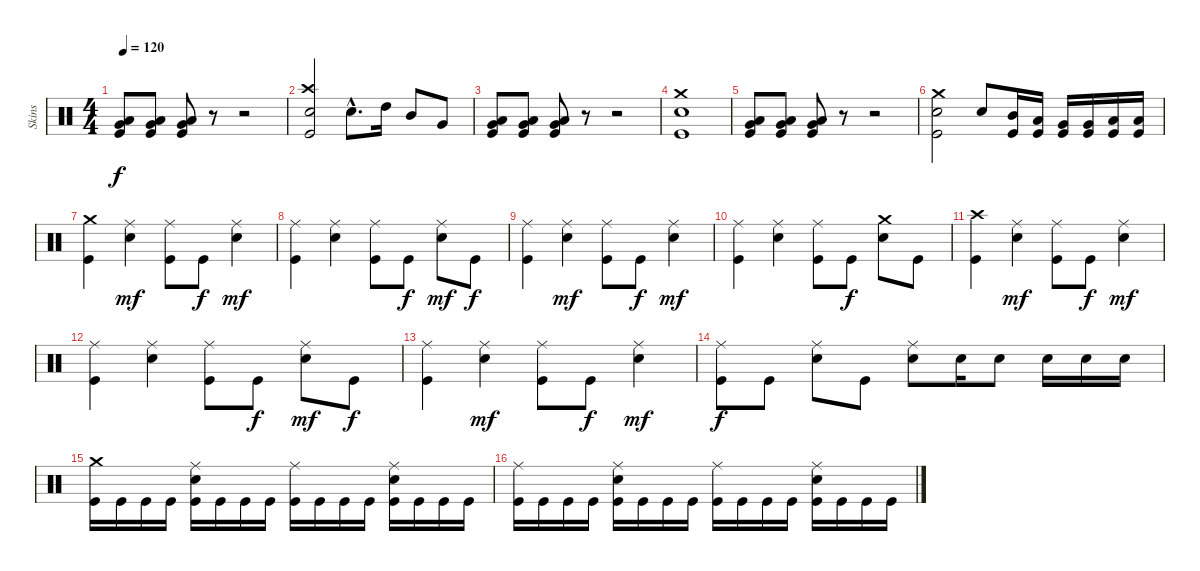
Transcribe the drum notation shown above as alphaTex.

\track ("Skins" "Skins") {instrument percussion}
\staff {score}
\articulation defaults
\ts (4 4)
\tempo 120
\clef neutral
\ks c
("Very Low Tom (hit)" "Low Floor Tom (hit)" "Kick (hit)").8{dy f} ("Very Low Tom (hit)" "Low Floor Tom (hit)" "Kick (hit)").8 ("Very Low Tom (hit)" "Low Floor Tom (hit)" "Kick (hit)").8 r.8 r.2 |
("Crash high (hit)" "Electric Snare (hit)" "Kick (hit)").2 "Snare (hit) 2"{hac}.8{d} "High Tom (hit)".16 "Mid Tom (hit)".8 "Very Low Tom (hit)".8 |
("Very Low Tom (hit)" "Low Floor Tom (hit)" "Kick (hit)").8 ("Very Low Tom (hit)" "Low Floor Tom (hit)" "Kick (hit)").8 ("Very Low Tom (hit)" "Low Floor Tom (hit)" "Kick (hit)").8 r.8 r.2 |
("Crash medium (hit)" "Electric Snare (hit)" "Kick (hit)").1 |
("Very Low Tom (hit)" "Low Floor Tom (hit)" "Kick (hit)").8 ("Very Low Tom (hit)" "Low Floor Tom (hit)" "Kick (hit)").8 ("Very Low Tom (hit)" "Low Floor Tom (hit)" "Kick (hit)").8 r.8 r.2 |
("Crash medium (hit)" "Snare (hit) 2" "Kick (hit)").2 "Snare (hit) 2".8 ("Mid Tom (hit)" "Kick (hit)").16 ("Low Tom (hit)" "Kick (hit)").16 ("Very Low Tom (hit)" "Kick (hit)").16 ("Very Low Tom (hit)" "Kick (hit)").16 ("Low Floor Tom (hit)" "Kick (hit)").16 ("Low Floor Tom (hit)" "Kick (hit)").16 |
("Crash medium (hit)" "Kick (hit)").4 ("Ride (middle)" "Snare (hit) 2").4{dy mf} ("Ride (middle)" "Kick (hit)").8 "Kick (hit)".8{dy f} ("Ride (middle)" "Snare (hit) 2").4{dy mf} |
("Ride (middle)" "Kick (hit)").4 ("Ride (middle)" "Snare (hit) 2").4 ("Ride (middle)" "Kick (hit)").8 "Kick (hit)".8{dy f} ("Ride (middle)" "Snare (hit) 2").8{dy mf} "Kick (hit)".8{dy f} |
("Ride (middle)" "Kick (hit)").4 ("Ride (middle)" "Snare (hit) 2").4{dy mf} ("Ride (middle)" "Kick (hit)").8 "Kick (hit)".8{dy f} ("Ride (middle)" "Snare (hit) 2").4{dy mf} |
("Ride (middle)" "Kick (hit)").4 ("Ride (middle)" "Snare (hit) 2").4 ("Ride (middle)" "Kick (hit)").8 "Kick (hit)".8{dy f} ("Crash medium (hit)" "Snare (hit) 2").8 "Kick (hit)".8 |
("Crash high (hit)" "Kick (hit)").4 ("Ride (middle)" "Snare (hit) 2").4{dy mf} ("Ride (middle)" "Kick (hit)").8 "Kick (hit)".8{dy f} ("Ride (middle)" "Snare (hit) 2").4{dy mf} |
("Ride (middle)" "Kick (hit)").4 ("Ride (middle)" "Snare (hit) 2").4 ("Ride (middle)" "Kick (hit)").8 "Kick (hit)".8{dy f} ("Ride (middle)" "Snare (hit) 2").8{dy mf} "Kick (hit)".8{dy f} |
("Ride (middle)" "Kick (hit)").4 ("Ride (middle)" "Snare (hit) 2").4{dy mf} ("Ride (middle)" "Kick (hit)").8 "Kick (hit)".8{dy f} ("Ride (middle)" "Snare (hit) 2").4{dy mf} |
("Ride (middle)" "Kick (hit)").8{dy f} "Kick (hit)".8 ("Ride (middle)" "Snare (hit) 2").8 "Kick (hit)".8 ("Ride (middle)" "Snare (hit) 2").8 "Snare (hit) 2".16 "Snare (hit) 2".8 "Snare (hit) 2".16 "Snare (hit) 2".16 "Snare (hit) 2".16 |
("Crash medium (hit)" "Kick (hit)").16 "Kick (hit)".16 "Kick (hit)".16 "Kick (hit)".16 ("Ride (middle)" "Electric Snare (hit)" "Kick (hit)").16 "Kick (hit)".16 "Kick (hit)".16 "Kick (hit)".16 ("Ride (middle)" "Kick (hit)").16 "Kick (hit)".16 "Kick (hit)".16 "Kick (hit)".16 ("Ride (middle)" "Electric Snare (hit)" "Kick (hit)").16 "Kick (hit)".16 "Kick (hit)".16 "Kick (hit)".16 |
("Ride (middle)" "Kick (hit)").16 "Kick (hit)".16 "Kick (hit)".16 "Kick (hit)".16 ("Ride (middle)" "Electric Snare (hit)" "Kick (hit)").16 "Kick (hit)".16 "Kick (hit)".16 "Kick (hit)".16 ("Ride (middle)" "Kick (hit)").16 "Kick (hit)".16 "Kick (hit)".16 "Kick (hit)".16 ("Ride (middle)" "Electric Snare (hit)" "Kick (hit)").16 "Kick (hit)".16 "Kick (hit)".16 "Kick (hit)".16
